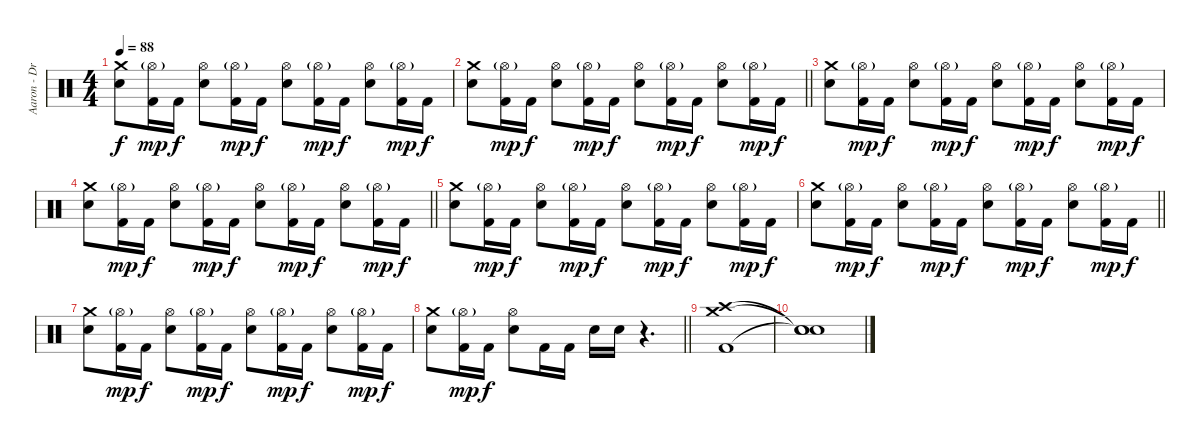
\track ("Aaron - Drums" "Aaron - Dr") {instrument percussion}
\staff {score}
\articulation defaults
\ts (4 4)
\tempo 88
\clef neutral
\ks c
("Crash medium (hit)" "Electric Snare (hit)").8{dy f} ("Hi-Hat (open)"{g} "Kick (hit) 2").16{dy mp} "Kick (hit) 2".16{dy f} ("Hi-Hat (open)" "Electric Snare (hit)").8 ("Hi-Hat (open)"{g} "Kick (hit) 2").16{dy mp} "Kick (hit) 2".16{dy f} ("Hi-Hat (open)" "Electric Snare (hit)").8 ("Hi-Hat (open)"{g} "Kick (hit) 2").16{dy mp} "Kick (hit) 2".16{dy f} ("Hi-Hat (open)" "Electric Snare (hit)").8 ("Hi-Hat (open)"{g} "Kick (hit) 2").16{dy mp} "Kick (hit) 2".16{dy f} |
\barLineRight lightlight
("Crash medium (hit)" "Electric Snare (hit)").8 ("Hi-Hat (open)"{g} "Kick (hit) 2").16{dy mp} "Kick (hit) 2".16{dy f} ("Hi-Hat (open)" "Electric Snare (hit)").8 ("Hi-Hat (open)"{g} "Kick (hit) 2").16{dy mp} "Kick (hit) 2".16{dy f} ("Hi-Hat (open)" "Electric Snare (hit)").8 ("Hi-Hat (open)"{g} "Kick (hit) 2").16{dy mp} "Kick (hit) 2".16{dy f} ("Hi-Hat (open)" "Electric Snare (hit)").8 ("Hi-Hat (open)"{g} "Kick (hit) 2").16{dy mp} "Kick (hit) 2".16{dy f} |
("Crash medium (hit)" "Electric Snare (hit)").8 ("Hi-Hat (open)"{g} "Kick (hit) 2").16{dy mp} "Kick (hit) 2".16{dy f} ("Hi-Hat (open)" "Electric Snare (hit)").8 ("Hi-Hat (open)"{g} "Kick (hit) 2").16{dy mp} "Kick (hit) 2".16{dy f} ("Hi-Hat (open)" "Electric Snare (hit)").8 ("Hi-Hat (open)"{g} "Kick (hit) 2").16{dy mp} "Kick (hit) 2".16{dy f} ("Hi-Hat (open)" "Electric Snare (hit)").8 ("Hi-Hat (open)"{g} "Kick (hit) 2").16{dy mp} "Kick (hit) 2".16{dy f} |
\barLineRight lightlight
("Crash medium (hit)" "Electric Snare (hit)").8 ("Hi-Hat (open)"{g} "Kick (hit) 2").16{dy mp} "Kick (hit) 2".16{dy f} ("Hi-Hat (open)" "Electric Snare (hit)").8 ("Hi-Hat (open)"{g} "Kick (hit) 2").16{dy mp} "Kick (hit) 2".16{dy f} ("Hi-Hat (open)" "Electric Snare (hit)").8 ("Hi-Hat (open)"{g} "Kick (hit) 2").16{dy mp} "Kick (hit) 2".16{dy f} ("Hi-Hat (open)" "Electric Snare (hit)").8 ("Hi-Hat (open)"{g} "Kick (hit) 2").16{dy mp} "Kick (hit) 2".16{dy f} |
("Crash medium (hit)" "Electric Snare (hit)").8 ("Hi-Hat (open)"{g} "Kick (hit) 2").16{dy mp} "Kick (hit) 2".16{dy f} ("Hi-Hat (open)" "Electric Snare (hit)").8 ("Hi-Hat (open)"{g} "Kick (hit) 2").16{dy mp} "Kick (hit) 2".16{dy f} ("Hi-Hat (open)" "Electric Snare (hit)").8 ("Hi-Hat (open)"{g} "Kick (hit) 2").16{dy mp} "Kick (hit) 2".16{dy f} ("Hi-Hat (open)" "Electric Snare (hit)").8 ("Hi-Hat (open)"{g} "Kick (hit) 2").16{dy mp} "Kick (hit) 2".16{dy f} |
\barLineRight lightlight
("Crash medium (hit)" "Electric Snare (hit)").8 ("Hi-Hat (open)"{g} "Kick (hit) 2").16{dy mp} "Kick (hit) 2".16{dy f} ("Hi-Hat (open)" "Electric Snare (hit)").8 ("Hi-Hat (open)"{g} "Kick (hit) 2").16{dy mp} "Kick (hit) 2".16{dy f} ("Hi-Hat (open)" "Electric Snare (hit)").8 ("Hi-Hat (open)"{g} "Kick (hit) 2").16{dy mp} "Kick (hit) 2".16{dy f} ("Hi-Hat (open)" "Electric Snare (hit)").8 ("Hi-Hat (open)"{g} "Kick (hit) 2").16{dy mp} "Kick (hit) 2".16{dy f} |
("Crash medium (hit)" "Electric Snare (hit)").8 ("Hi-Hat (open)"{g} "Kick (hit) 2").16{dy mp} "Kick (hit) 2".16{dy f} ("Hi-Hat (open)" "Electric Snare (hit)").8 ("Hi-Hat (open)"{g} "Kick (hit) 2").16{dy mp} "Kick (hit) 2".16{dy f} ("Hi-Hat (open)" "Electric Snare (hit)").8 ("Hi-Hat (open)"{g} "Kick (hit) 2").16{dy mp} "Kick (hit) 2".16{dy f} ("Hi-Hat (open)" "Electric Snare (hit)").8 ("Hi-Hat (open)"{g} "Kick (hit) 2").16{dy mp} "Kick (hit) 2".16{dy f} |
\barLineRight lightlight
("Crash medium (hit)" "Electric Snare (hit)").8 ("Hi-Hat (open)"{g} "Kick (hit) 2").16{dy mp} "Kick (hit) 2".16{dy f} ("Hi-Hat (open)" "Electric Snare (hit)").8 "Kick (hit) 2".16 "Kick (hit) 2".16 "Electric Snare (hit)".16 "Electric Snare (hit)".16 r.4{d} |
("Crash high (hit)" "Crash medium (hit)" "Kick (hit) 2").1 |
("Snare (hit)"{t} "Snare (hit)"{t} "Snare (hit)"{t}).1
